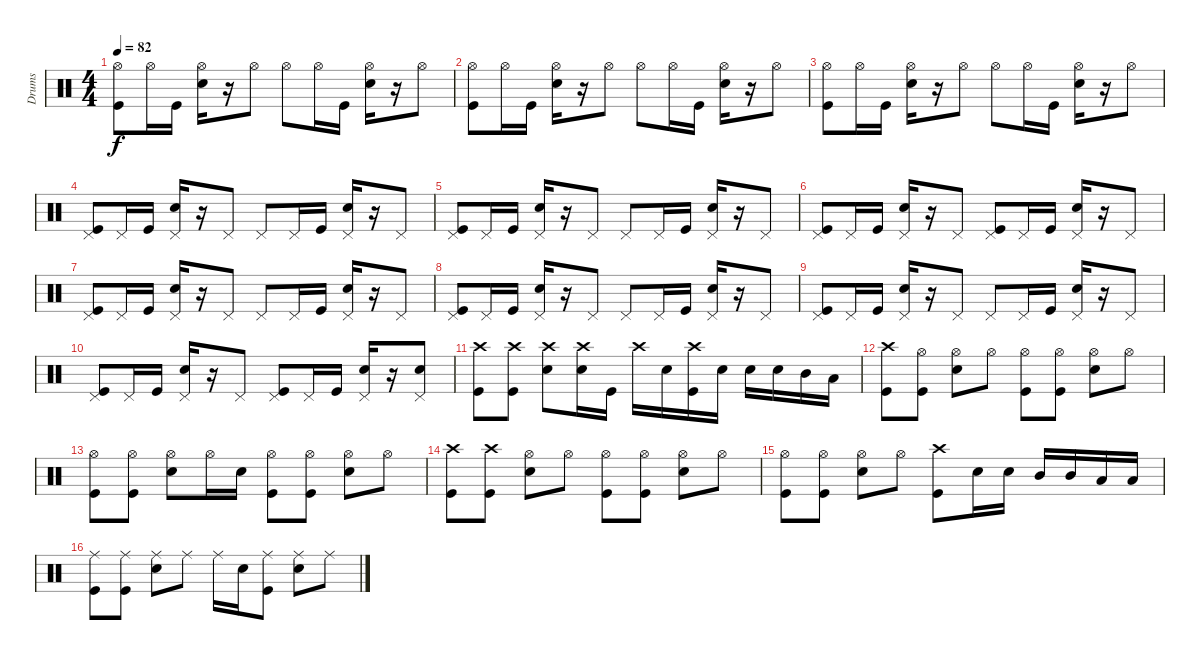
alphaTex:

\track ("Drums" "Drums") {instrument percussion}
\staff {score}
\articulation defaults
\ts (4 4)
\tempo 82
\clef neutral
\ks c
("Hi-Hat (open)" "Kick (hit)").8{dy f} "Hi-Hat (open)".16 "Kick (hit)".16 ("Hi-Hat (open)" "Snare (hit) 2").16 r.16 "Hi-Hat (open)".8 "Hi-Hat (open)".8 "Hi-Hat (open)".16 "Kick (hit)".16 ("Hi-Hat (open)" "Snare (hit) 2").16 r.16 "Hi-Hat (open)".8 |
("Hi-Hat (open)" "Kick (hit)").8 "Hi-Hat (open)".16 "Kick (hit)".16 ("Hi-Hat (open)" "Snare (hit) 2").16 r.16 "Hi-Hat (open)".8 "Hi-Hat (open)".8 "Hi-Hat (open)".16 "Kick (hit)".16 ("Hi-Hat (open)" "Snare (hit) 2").16 r.16 "Hi-Hat (open)".8 |
("Hi-Hat (open)" "Kick (hit)").8 "Hi-Hat (open)".16 "Kick (hit)".16 ("Hi-Hat (open)" "Snare (hit) 2").16 r.16 "Hi-Hat (open)".8 "Hi-Hat (open)".8 "Hi-Hat (open)".16 "Kick (hit)".16 ("Hi-Hat (open)" "Snare (hit) 2").16 r.16 "Hi-Hat (open)".8 |
("Pedal Hi-Hat (hit)" "Kick (hit)").8 "Pedal Hi-Hat (hit)".16 "Kick (hit)".16 ("Pedal Hi-Hat (hit)" "Snare (hit) 2").16 r.16 "Pedal Hi-Hat (hit)".8 "Pedal Hi-Hat (hit)".8 "Pedal Hi-Hat (hit)".16 "Kick (hit)".16 ("Pedal Hi-Hat (hit)" "Snare (hit) 2").16 r.16 "Pedal Hi-Hat (hit)".8 |
("Pedal Hi-Hat (hit)" "Kick (hit)").8 "Pedal Hi-Hat (hit)".16 "Kick (hit)".16 ("Pedal Hi-Hat (hit)" "Snare (hit) 2").16 r.16 "Pedal Hi-Hat (hit)".8 "Pedal Hi-Hat (hit)".8 "Pedal Hi-Hat (hit)".16 "Kick (hit)".16 ("Pedal Hi-Hat (hit)" "Snare (hit) 2").16 r.16 "Pedal Hi-Hat (hit)".8 |
("Pedal Hi-Hat (hit)" "Kick (hit)").8 "Pedal Hi-Hat (hit)".16 "Kick (hit)".16 ("Pedal Hi-Hat (hit)" "Snare (hit) 2").16 r.16 "Pedal Hi-Hat (hit)".8 ("Pedal Hi-Hat (hit)" "Kick (hit)").8 "Pedal Hi-Hat (hit)".16 "Kick (hit)".16 ("Pedal Hi-Hat (hit)" "Snare (hit) 2").16 r.16 "Pedal Hi-Hat (hit)".8 |
("Pedal Hi-Hat (hit)" "Kick (hit)").8 "Pedal Hi-Hat (hit)".16 "Kick (hit)".16 ("Pedal Hi-Hat (hit)" "Snare (hit) 2").16 r.16 "Pedal Hi-Hat (hit)".8 "Pedal Hi-Hat (hit)".8 "Pedal Hi-Hat (hit)".16 "Kick (hit)".16 ("Pedal Hi-Hat (hit)" "Snare (hit) 2").16 r.16 "Pedal Hi-Hat (hit)".8 |
("Pedal Hi-Hat (hit)" "Kick (hit)").8 "Pedal Hi-Hat (hit)".16 "Kick (hit)".16 ("Pedal Hi-Hat (hit)" "Snare (hit) 2").16 r.16 "Pedal Hi-Hat (hit)".8 "Pedal Hi-Hat (hit)".8 "Pedal Hi-Hat (hit)".16 "Kick (hit)".16 ("Pedal Hi-Hat (hit)" "Snare (hit) 2").16 r.16 "Pedal Hi-Hat (hit)".8 |
("Pedal Hi-Hat (hit)" "Kick (hit)").8 "Pedal Hi-Hat (hit)".16 "Kick (hit)".16 ("Pedal Hi-Hat (hit)" "Snare (hit) 2").16 r.16 "Pedal Hi-Hat (hit)".8 "Pedal Hi-Hat (hit)".8 "Pedal Hi-Hat (hit)".16 "Kick (hit)".16 ("Pedal Hi-Hat (hit)" "Snare (hit) 2").16 r.16 "Pedal Hi-Hat (hit)".8 |
("Pedal Hi-Hat (hit)" "Kick (hit)").8 "Pedal Hi-Hat (hit)".16 "Kick (hit)".16 ("Pedal Hi-Hat (hit)" "Snare (hit) 2").16 r.16 "Pedal Hi-Hat (hit)".8 ("Pedal Hi-Hat (hit)" "Kick (hit)").8 "Pedal Hi-Hat (hit)".16 "Kick (hit)".16 ("Pedal Hi-Hat (hit)" "Snare (hit) 2").16 r.16 ("Pedal Hi-Hat (hit)" "Snare (hit) 2").8 |
("Crash high (hit)" "Kick (hit)").8 ("Crash high (hit)" "Kick (hit)").8 ("Crash high (hit)" "Snare (hit) 2").8 ("Crash high (hit)" "Snare (hit) 2").16 "Kick (hit)".16 "Crash high (hit)".16 "Snare (hit) 2".16 ("Crash high (hit)" "Kick (hit)").16 "Snare (hit) 2".16 "Snare (hit) 2".16 "Snare (hit) 2".16 "Mid Tom (hit)".16 "Low Tom (hit)".16 |
("Crash high (hit)" "Kick (hit)").8 ("Hi-Hat (open)" "Kick (hit)").8 ("Hi-Hat (open)" "Snare (hit) 2").8 "Hi-Hat (open)".8 ("Hi-Hat (open)" "Kick (hit)").8 ("Hi-Hat (open)" "Kick (hit)").8 ("Hi-Hat (open)" "Snare (hit) 2").8 "Hi-Hat (open)".8 |
("Hi-Hat (open)" "Kick (hit)").8 ("Hi-Hat (open)" "Kick (hit)").8 ("Hi-Hat (open)" "Snare (hit) 2").8 "Hi-Hat (open)".16 "Snare (hit) 2".16 ("Hi-Hat (open)" "Kick (hit)").8 ("Hi-Hat (open)" "Kick (hit)").8 ("Hi-Hat (open)" "Snare (hit) 2").8 "Hi-Hat (open)".8 |
("Crash high (hit)" "Kick (hit)").8 ("Crash high (hit)" "Kick (hit)").8 ("Hi-Hat (open)" "Snare (hit) 2").8 "Hi-Hat (open)".8 ("Hi-Hat (open)" "Kick (hit)").8 ("Hi-Hat (open)" "Kick (hit)").8 ("Hi-Hat (open)" "Snare (hit) 2").8 "Hi-Hat (open)".8 |
("Hi-Hat (open)" "Kick (hit)").8 ("Hi-Hat (open)" "Kick (hit)").8 ("Hi-Hat (open)" "Snare (hit) 2").8 "Hi-Hat (open)".8 ("Crash high (hit)" "Kick (hit)").8 "Snare (hit) 2".16 "Snare (hit) 2".16 "Mid Tom (hit)".16 "Mid Tom (hit)".16 "Low Tom (hit)".16 "Low Tom (hit)".16 |
("Ride (middle)" "Kick (hit)").8 ("Ride (middle)" "Kick (hit)").8 ("Ride (middle)" "Snare (hit) 2").8 "Ride (middle)".8 "Ride (middle)".16 "Snare (hit) 2".16 ("Ride (middle)" "Kick (hit)").8 ("Ride (middle)" "Snare (hit) 2").8 "Ride (middle)".8
